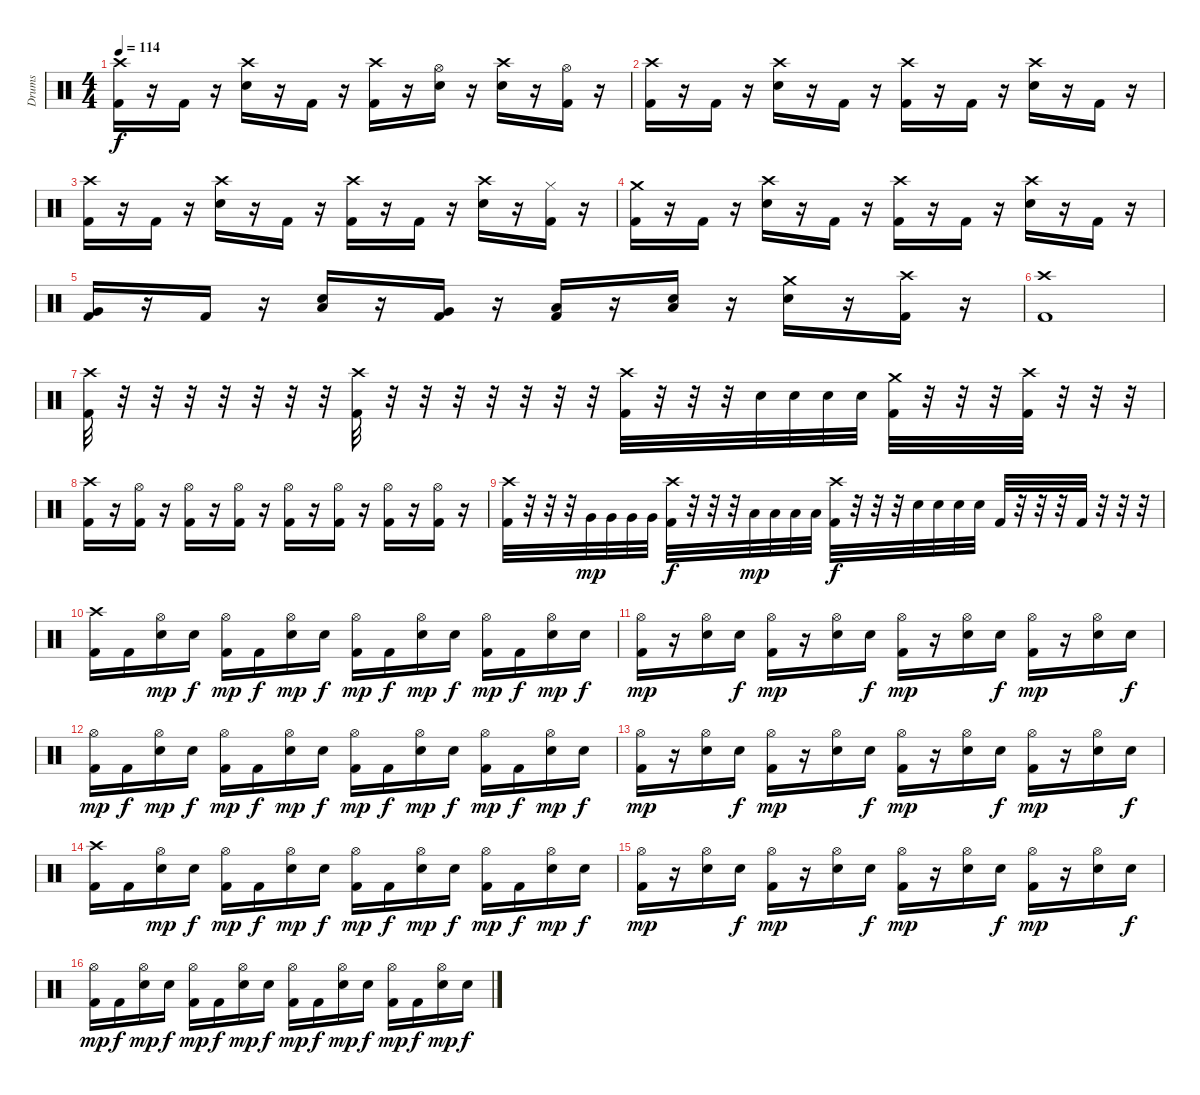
\track ("Drums" "Drums") {instrument percussion}
\staff {score}
\articulation defaults
\ts (4 4)
\tempo 114
\clef neutral
\ks c
("Crash high (hit)" "Kick (hit) 2").16{dy f} r.16 "Kick (hit) 2".16 r.16 ("Crash high (hit)" "Electric Snare (hit)").16 r.16 "Kick (hit) 2".16 r.16 ("Crash high (hit)" "Kick (hit) 2").16 r.16 ("Hi-Hat (open)" "Electric Snare (hit)").16 r.16 ("Crash high (hit)" "Electric Snare (hit)").16 r.16 ("Hi-Hat (open)" "Kick (hit) 2").16 r.16 |
("Crash high (hit)" "Kick (hit) 2").16 r.16 "Kick (hit) 2".16 r.16 ("Crash high (hit)" "Electric Snare (hit)").16 r.16 "Kick (hit) 2".16 r.16 ("Crash high (hit)" "Kick (hit) 2").16 r.16 "Kick (hit) 2".16 r.16 ("Crash high (hit)" "Electric Snare (hit)").16 r.16 "Kick (hit) 2".16 r.16 |
("Crash high (hit)" "Kick (hit) 2").16 r.16 "Kick (hit) 2".16 r.16 ("Crash high (hit)" "Electric Snare (hit)").16 r.16 "Kick (hit) 2".16 r.16 ("Crash high (hit)" "Kick (hit) 2").16 r.16 "Kick (hit) 2".16 r.16 ("Crash high (hit)" "Electric Snare (hit)").16 r.16 ("Hi-Hat (closed)" "Kick (hit) 2").16 r.16 |
("Crash medium (hit)" "Kick (hit) 2").16 r.16 "Kick (hit) 2".16 r.16 ("Crash high (hit)" "Electric Snare (hit)").16 r.16 "Kick (hit) 2".16 r.16 ("Crash high (hit)" "Kick (hit) 2").16 r.16 "Kick (hit) 2".16 r.16 ("Crash high (hit)" "Electric Snare (hit)").16 r.16 "Kick (hit) 2".16 r.16 |
("Very Low Tom (hit)" "Kick (hit) 2").16 r.16 "Kick (hit) 2".16 r.16 ("Low Tom (hit)" "Electric Snare (hit)").16 r.16 ("Very Low Tom (hit)" "Kick (hit) 2").16 r.16 ("Low Floor Tom (hit)" "Kick (hit) 2").16 r.16 ("Low Floor Tom (hit)" "Electric Snare (hit)").16 r.16 ("Crash medium (hit)" "Electric Snare (hit)").16 r.16 ("Crash high (hit)" "Kick (hit) 2").16 r.16 |
("Crash high (hit)" "Kick (hit) 2").1 |
("Crash high (hit)" "Kick (hit) 2").32 r.32 r.32 r.32 r.32 r.32 r.32 r.32 ("Crash high (hit)" "Kick (hit) 2").32 r.32 r.32 r.32 r.32 r.32 r.32 r.32 ("Crash high (hit)" "Kick (hit) 2").32 r.32 r.32 r.32 "Electric Snare (hit)".32 "Electric Snare (hit)".32 "Electric Snare (hit)".32 "Electric Snare (hit)".32 ("Crash medium (hit)" "Kick (hit) 2").32 r.32 r.32 r.32 ("Crash high (hit)" "Kick (hit) 2").32 r.32 r.32 r.32 |
("Crash high (hit)" "Kick (hit) 2").16 r.16 ("Hi-Hat (open)" "Kick (hit) 2").16 r.16 ("Hi-Hat (open)" "Kick (hit) 2").16 r.16 ("Hi-Hat (open)" "Kick (hit) 2").16 r.16 ("Hi-Hat (open)" "Kick (hit) 2").16 r.16 ("Hi-Hat (open)" "Kick (hit) 2").16 r.16 ("Hi-Hat (open)" "Kick (hit) 2").16 r.16 ("Hi-Hat (open)" "Kick (hit) 2").16 r.16 |
("Crash high (hit)" "Kick (hit) 2").32 r.32 r.32 r.32 "Very Low Tom (hit)".32{dy mp} "Very Low Tom (hit)".32 "Very Low Tom (hit)".32 "Very Low Tom (hit)".32 ("Crash high (hit)" "Kick (hit) 2").32{dy f} r.32 r.32 r.32 "Low Floor Tom (hit)".32{dy mp} "Low Floor Tom (hit)".32 "Low Floor Tom (hit)".32 "Low Floor Tom (hit)".32 ("Crash high (hit)" "Kick (hit) 2").32{dy f} r.32 r.32 r.32 "Electric Snare (hit)".32 "Electric Snare (hit)".32 "Electric Snare (hit)".32 "Electric Snare (hit)".32 "Kick (hit) 2".32 r.32 r.32 r.32 "Kick (hit) 2".32 r.32 r.32 r.32 |
("Crash high (hit)" "Kick (hit) 2").16 "Kick (hit) 2".16 ("Hi-Hat (open)" "Electric Snare (hit)").16{dy mp} "Electric Snare (hit)".16{dy f} ("Hi-Hat (open)" "Kick (hit) 2").16{dy mp} "Kick (hit) 2".16{dy f} ("Hi-Hat (open)" "Electric Snare (hit)").16{dy mp} "Electric Snare (hit)".16{dy f} ("Hi-Hat (open)" "Kick (hit) 2").16{dy mp} "Kick (hit) 2".16{dy f} ("Hi-Hat (open)" "Electric Snare (hit)").16{dy mp} "Electric Snare (hit)".16{dy f} ("Hi-Hat (open)" "Kick (hit) 2").16{dy mp} "Kick (hit) 2".16{dy f} ("Hi-Hat (open)" "Electric Snare (hit)").16{dy mp} "Electric Snare (hit)".16{dy f} |
("Hi-Hat (open)" "Kick (hit) 2").16{dy mp} r.16 ("Hi-Hat (open)" "Electric Snare (hit)").16 "Electric Snare (hit)".16{dy f} ("Hi-Hat (open)" "Kick (hit) 2").16{dy mp} r.16 ("Hi-Hat (open)" "Electric Snare (hit)").16 "Electric Snare (hit)".16{dy f} ("Hi-Hat (open)" "Kick (hit) 2").16{dy mp} r.16 ("Hi-Hat (open)" "Electric Snare (hit)").16 "Electric Snare (hit)".16{dy f} ("Hi-Hat (open)" "Kick (hit) 2").16{dy mp} r.16 ("Hi-Hat (open)" "Electric Snare (hit)").16 "Electric Snare (hit)".16{dy f} |
("Hi-Hat (open)" "Kick (hit) 2").16{dy mp} "Kick (hit) 2".16{dy f} ("Hi-Hat (open)" "Electric Snare (hit)").16{dy mp} "Electric Snare (hit)".16{dy f} ("Hi-Hat (open)" "Kick (hit) 2").16{dy mp} "Kick (hit) 2".16{dy f} ("Hi-Hat (open)" "Electric Snare (hit)").16{dy mp} "Electric Snare (hit)".16{dy f} ("Hi-Hat (open)" "Kick (hit) 2").16{dy mp} "Kick (hit) 2".16{dy f} ("Hi-Hat (open)" "Electric Snare (hit)").16{dy mp} "Electric Snare (hit)".16{dy f} ("Hi-Hat (open)" "Kick (hit) 2").16{dy mp} "Kick (hit) 2".16{dy f} ("Hi-Hat (open)" "Electric Snare (hit)").16{dy mp} "Electric Snare (hit)".16{dy f} |
("Hi-Hat (open)" "Kick (hit) 2").16{dy mp} r.16 ("Hi-Hat (open)" "Electric Snare (hit)").16 "Electric Snare (hit)".16{dy f} ("Hi-Hat (open)" "Kick (hit) 2").16{dy mp} r.16 ("Hi-Hat (open)" "Electric Snare (hit)").16 "Electric Snare (hit)".16{dy f} ("Hi-Hat (open)" "Kick (hit) 2").16{dy mp} r.16 ("Hi-Hat (open)" "Electric Snare (hit)").16 "Electric Snare (hit)".16{dy f} ("Hi-Hat (open)" "Kick (hit) 2").16{dy mp} r.16 ("Hi-Hat (open)" "Electric Snare (hit)").16 "Electric Snare (hit)".16{dy f} |
("Crash high (hit)" "Kick (hit) 2").16 "Kick (hit) 2".16 ("Hi-Hat (open)" "Electric Snare (hit)").16{dy mp} "Electric Snare (hit)".16{dy f} ("Hi-Hat (open)" "Kick (hit) 2").16{dy mp} "Kick (hit) 2".16{dy f} ("Hi-Hat (open)" "Electric Snare (hit)").16{dy mp} "Electric Snare (hit)".16{dy f} ("Hi-Hat (open)" "Kick (hit) 2").16{dy mp} "Kick (hit) 2".16{dy f} ("Hi-Hat (open)" "Electric Snare (hit)").16{dy mp} "Electric Snare (hit)".16{dy f} ("Hi-Hat (open)" "Kick (hit) 2").16{dy mp} "Kick (hit) 2".16{dy f} ("Hi-Hat (open)" "Electric Snare (hit)").16{dy mp} "Electric Snare (hit)".16{dy f} |
("Hi-Hat (open)" "Kick (hit) 2").16{dy mp} r.16 ("Hi-Hat (open)" "Electric Snare (hit)").16 "Electric Snare (hit)".16{dy f} ("Hi-Hat (open)" "Kick (hit) 2").16{dy mp} r.16 ("Hi-Hat (open)" "Electric Snare (hit)").16 "Electric Snare (hit)".16{dy f} ("Hi-Hat (open)" "Kick (hit) 2").16{dy mp} r.16 ("Hi-Hat (open)" "Electric Snare (hit)").16 "Electric Snare (hit)".16{dy f} ("Hi-Hat (open)" "Kick (hit) 2").16{dy mp} r.16 ("Hi-Hat (open)" "Electric Snare (hit)").16 "Electric Snare (hit)".16{dy f} |
("Hi-Hat (open)" "Kick (hit) 2").16{dy mp} "Kick (hit) 2".16{dy f} ("Hi-Hat (open)" "Electric Snare (hit)").16{dy mp} "Electric Snare (hit)".16{dy f} ("Hi-Hat (open)" "Kick (hit) 2").16{dy mp} "Kick (hit) 2".16{dy f} ("Hi-Hat (open)" "Electric Snare (hit)").16{dy mp} "Electric Snare (hit)".16{dy f} ("Hi-Hat (open)" "Kick (hit) 2").16{dy mp} "Kick (hit) 2".16{dy f} ("Hi-Hat (open)" "Electric Snare (hit)").16{dy mp} "Electric Snare (hit)".16{dy f} ("Hi-Hat (open)" "Kick (hit) 2").16{dy mp} "Kick (hit) 2".16{dy f} ("Hi-Hat (open)" "Electric Snare (hit)").16{dy mp} "Electric Snare (hit)".16{dy f}
